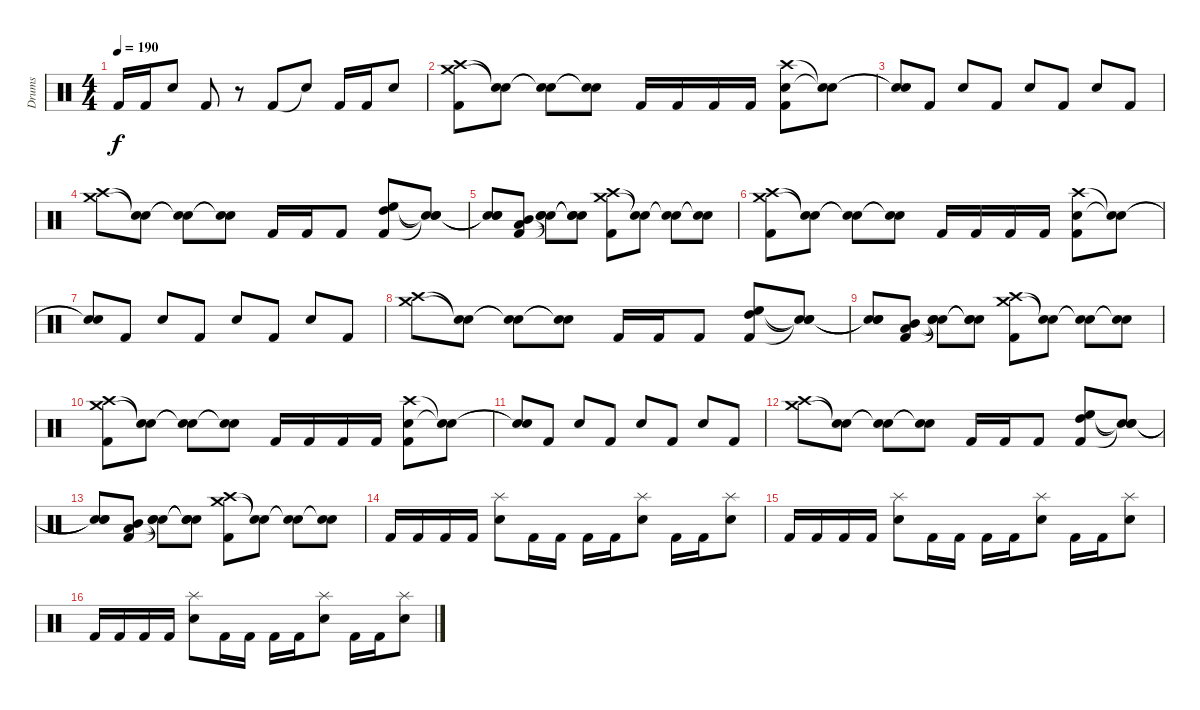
\track ("Drums" "Drums") {instrument percussion}
\staff {score}
\articulation defaults
\ts (4 4)
\tempo 190
\clef neutral
\ks c "Kick (hit) 2".16{dy f} "Kick (hit) 2".16 "Snare (hit) 2".8 "Kick (hit) 2".8
r.8 "Kick (hit) 2".8 "Snare (hit)"{t}.8 "Kick (hit) 2".16 "Kick (hit) 2".16 "Snare (hit) 2".8 |
("Crash medium (hit)" "Crash high (hit)" "Kick (hit) 2").8 ("Snare (hit)"{t} "Snare (hit)"{t}).8 ("Snare (hit)"{t} "Snare (hit)"{t}).8 ("Snare (hit)"{t} "Snare (hit)"{t}).8 "Kick (hit) 2".16 "Kick (hit) 2".16 "Kick (hit) 2".16 "Kick (hit) 2".16 ("Crash high (hit)" "Snare (hit) 2" "Kick (hit) 2").8 ("Snare (hit)"{t} "Snare (hit)"{t}).8 |
("Snare (hit)"{t} "Snare (hit) 2"{t}).8 "Kick (hit) 2".8 "Snare (hit) 2".8 "Kick (hit) 2".8 "Snare (hit) 2".8 "Kick (hit) 2".8 "Snare (hit) 2".8 "Kick (hit) 2".8 |
("Crash medium (hit)" "Crash high (hit)").8 ("Snare (hit)"{t} "Snare (hit)"{t}).8 ("Snare (hit)"{t} "Snare (hit)"{t}).8 ("Snare (hit)"{t} "Snare (hit)"{t}).8 "Kick (hit) 2".16 "Kick (hit) 2".16 "Kick (hit) 2".8 ("High Floor Tom (hit)" "High Tom (hit)" "Kick (hit) 2").8 ("Snare (hit)"{t} "Snare (hit)"{t} "Snare (hit)"{t}).8 |
("Snare (hit)"{t} "Snare (hit)"{t} "Snare (hit)"{t}).8 ("Mid Tom (hit)" "Low Tom (hit)" "Kick (hit) 2").8 ("Snare (hit)"{t} "Snare (hit)"{t} "Snare (hit)"{t}).8 ("Snare (hit)"{t} "Snare (hit)"{t} "Snare (hit)"{t}).8 ("Crash medium (hit)" "Crash high (hit)" "Kick (hit) 2").8 ("Snare (hit)"{t} "Snare (hit)"{t}).8 ("Snare (hit)"{t} "Snare (hit)"{t}).8 ("Snare (hit)"{t} "Snare (hit)"{t}).8 |
("Crash medium (hit)" "Crash high (hit)" "Kick (hit) 2").8 ("Snare (hit)"{t} "Snare (hit)"{t}).8 ("Snare (hit)"{t} "Snare (hit)"{t}).8 ("Snare (hit)"{t} "Snare (hit)"{t}).8 "Kick (hit) 2".16 "Kick (hit) 2".16 "Kick (hit) 2".16 "Kick (hit) 2".16 ("Crash high (hit)" "Snare (hit) 2" "Kick (hit) 2").8 ("Snare (hit)"{t} "Snare (hit)"{t}).8 |
("Snare (hit)"{t} "Snare (hit) 2"{t}).8 "Kick (hit) 2".8 "Snare (hit) 2".8 "Kick (hit) 2".8 "Snare (hit) 2".8 "Kick (hit) 2".8 "Snare (hit) 2".8 "Kick (hit) 2".8 |
("Crash medium (hit)" "Crash high (hit)").8 ("Snare (hit)"{t} "Snare (hit)"{t}).8 ("Snare (hit)"{t} "Snare (hit)"{t}).8 ("Snare (hit)"{t} "Snare (hit)"{t}).8 "Kick (hit) 2".16 "Kick (hit) 2".16 "Kick (hit) 2".8 ("High Floor Tom (hit)" "High Tom (hit)" "Kick (hit) 2").8 ("Snare (hit)"{t} "Snare (hit)"{t} "Snare (hit)"{t}).8 |
("Snare (hit)"{t} "Snare (hit)"{t} "Snare (hit)"{t}).8 ("Mid Tom (hit)" "Low Tom (hit)" "Kick (hit) 2").8 ("Snare (hit)"{t} "Snare (hit)"{t} "Snare (hit)"{t}).8 ("Snare (hit)"{t} "Snare (hit)"{t} "Snare (hit)"{t}).8 ("Crash medium (hit)" "Crash high (hit)" "Kick (hit) 2").8 ("Snare (hit)"{t} "Snare (hit)"{t}).8 ("Snare (hit)"{t} "Snare (hit)"{t}).8 ("Snare (hit)"{t} "Snare (hit)"{t}).8 |
("Crash medium (hit)" "Crash high (hit)" "Kick (hit) 2").8 ("Snare (hit)"{t} "Snare (hit)"{t}).8 ("Snare (hit)"{t} "Snare (hit)"{t}).8 ("Snare (hit)"{t} "Snare (hit)"{t}).8 "Kick (hit) 2".16 "Kick (hit) 2".16 "Kick (hit) 2".16 "Kick (hit) 2".16 ("Crash high (hit)" "Snare (hit) 2" "Kick (hit) 2").8 ("Snare (hit)"{t} "Snare (hit)"{t}).8 |
("Snare (hit)"{t} "Snare (hit) 2"{t}).8 "Kick (hit) 2".8 "Snare (hit) 2".8 "Kick (hit) 2".8 "Snare (hit) 2".8 "Kick (hit) 2".8 "Snare (hit) 2".8 "Kick (hit) 2".8 |
("Crash medium (hit)" "Crash high (hit)").8 ("Snare (hit)"{t} "Snare (hit)"{t}).8 ("Snare (hit)"{t} "Snare (hit)"{t}).8 ("Snare (hit)"{t} "Snare (hit)"{t}).8 "Kick (hit) 2".16 "Kick (hit) 2".16 "Kick (hit) 2".8 ("High Floor Tom (hit)" "High Tom (hit)" "Kick (hit) 2").8 ("Snare (hit)"{t} "Snare (hit)"{t} "Snare (hit)"{t}).8 |
("Snare (hit)"{t} "Snare (hit)"{t} "Snare (hit)"{t}).8 ("Mid Tom (hit)" "Low Tom (hit)" "Kick (hit) 2").8 ("Snare (hit)"{t} "Snare (hit)"{t} "Snare (hit)"{t}).8 ("Snare (hit)"{t} "Snare (hit)"{t} "Snare (hit)"{t}).8 ("Crash medium (hit)" "Crash high (hit)" "Kick (hit) 2").8 ("Snare (hit)"{t} "Snare (hit)"{t}).8 ("Snare (hit)"{t} "Snare (hit)"{t}).8 ("Snare (hit)"{t} "Snare (hit)"{t}).8 |
"Kick (hit) 2".16 "Kick (hit) 2".16 "Kick (hit) 2".16 "Kick (hit) 2".16 ("Splash (hit)" "Snare (hit) 2").8 "Kick (hit) 2".16 "Kick (hit) 2".16 "Kick (hit) 2".16 "Kick (hit) 2".16 ("Splash (hit)" "Snare (hit) 2").8 "Kick (hit) 2".16 "Kick (hit) 2".16 ("Splash (hit)" "Snare (hit) 2").8 |
"Kick (hit) 2".16 "Kick (hit) 2".16 "Kick (hit) 2".16 "Kick (hit) 2".16 ("Splash (hit)" "Snare (hit) 2").8 "Kick (hit) 2".16 "Kick (hit) 2".16 "Kick (hit) 2".16 "Kick (hit) 2".16 ("Splash (hit)" "Snare (hit) 2").8 "Kick (hit) 2".16 "Kick (hit) 2".16 ("Splash (hit)" "Snare (hit) 2").8 |
"Kick (hit) 2".16 "Kick (hit) 2".16 "Kick (hit) 2".16 "Kick (hit) 2".16 ("Splash (hit)" "Snare (hit) 2").8 "Kick (hit) 2".16 "Kick (hit) 2".16 "Kick (hit) 2".16 "Kick (hit) 2".16 ("Splash (hit)" "Snare (hit) 2").8 "Kick (hit) 2".16 "Kick (hit) 2".16 ("Splash (hit)" "Snare (hit) 2").8
